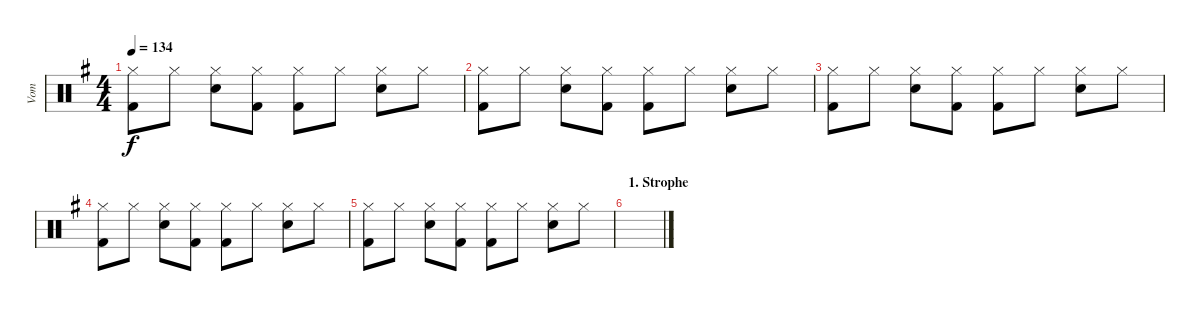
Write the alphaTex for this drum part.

\track ("Vom" "Vom") {instrument percussion}
\staff {score}
\articulation defaults
\ts (4 4)
\tempo 134
\clef neutral
\ks g
("Hi-Hat (closed)" "Kick (hit) 2").8{dy f} "Hi-Hat (closed)".8 ("Hi-Hat (closed)" "Snare (hit) 2").8 ("Hi-Hat (closed)" "Kick (hit) 2").8 ("Hi-Hat (closed)" "Kick (hit) 2").8 "Hi-Hat (closed)".8 ("Hi-Hat (closed)" "Snare (hit) 2").8 "Hi-Hat (closed)".8 |
("Hi-Hat (closed)" "Kick (hit) 2").8 "Hi-Hat (closed)".8 ("Hi-Hat (closed)" "Snare (hit) 2").8 ("Hi-Hat (closed)" "Kick (hit) 2").8 ("Hi-Hat (closed)" "Kick (hit) 2").8 "Hi-Hat (closed)".8 ("Hi-Hat (closed)" "Snare (hit) 2").8 "Hi-Hat (closed)".8 |
("Hi-Hat (closed)" "Kick (hit) 2").8 "Hi-Hat (closed)".8 ("Hi-Hat (closed)" "Snare (hit) 2").8 ("Hi-Hat (closed)" "Kick (hit) 2").8 ("Hi-Hat (closed)" "Kick (hit) 2").8 "Hi-Hat (closed)".8 ("Hi-Hat (closed)" "Snare (hit) 2").8 "Hi-Hat (closed)".8 |
("Hi-Hat (closed)" "Kick (hit) 2").8 "Hi-Hat (closed)".8 ("Hi-Hat (closed)" "Snare (hit) 2").8 ("Hi-Hat (closed)" "Kick (hit) 2").8 ("Hi-Hat (closed)" "Kick (hit) 2").8 "Hi-Hat (closed)".8 ("Hi-Hat (closed)" "Snare (hit) 2").8 "Hi-Hat (closed)".8 |
("Hi-Hat (closed)" "Kick (hit) 2").8 "Hi-Hat (closed)".8 ("Hi-Hat (closed)" "Snare (hit) 2").8 ("Hi-Hat (closed)" "Kick (hit) 2").8 ("Hi-Hat (closed)" "Kick (hit) 2").8 "Hi-Hat (closed)".8 ("Hi-Hat (closed)" "Snare (hit) 2").8 "Hi-Hat (closed)".8 |
\section ("" "1. Strophe")
